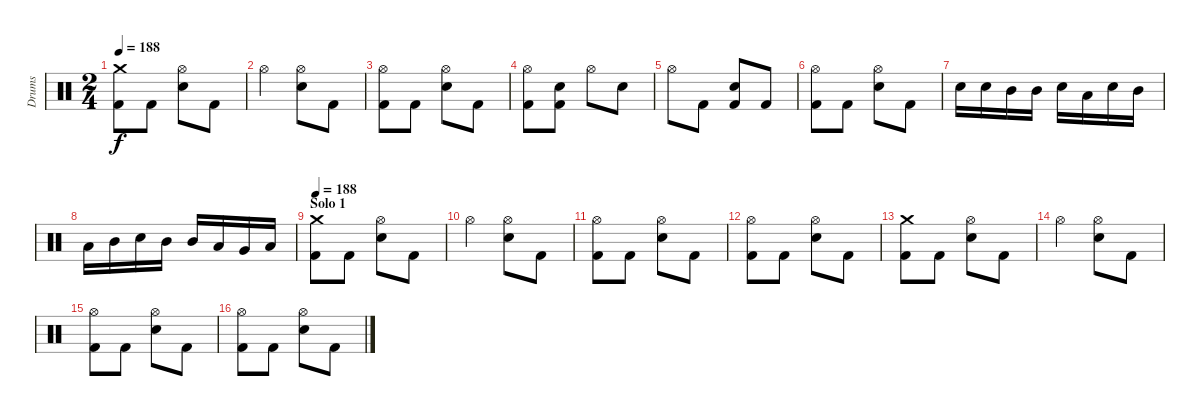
\track ("Drums" "Drums") {instrument percussion}
\staff {score}
\articulation defaults
\ts (2 4)
\tempo 188
\clef neutral
\ks c
("Crash medium (hit)" "Kick (hit) 2").8{dy f} "Kick (hit) 2".8 ("Electric Snare (hit)" "Hi-Hat (open)").8 "Kick (hit) 2".8 |
"Hi-Hat (open)".4 ("Electric Snare (hit)" "Hi-Hat (open)").8 "Kick (hit) 2".8 |
("Hi-Hat (open)" "Kick (hit) 2").8 "Kick (hit) 2".8 ("Electric Snare (hit)" "Hi-Hat (open)").8 "Kick (hit) 2".8 |
("Hi-Hat (open)" "Kick (hit) 2").8 ("Electric Snare (hit)" "Kick (hit) 2").8 "Hi-Hat (open)".8 "Electric Snare (hit)".8 |
"Hi-Hat (open)".8 "Kick (hit) 2".8 ("Electric Snare (hit)" "Kick (hit) 2").8 "Kick (hit) 2".8 |
("Hi-Hat (open)" "Kick (hit) 2").8 "Kick (hit) 2".8 ("Electric Snare (hit)" "Hi-Hat (open)").8 "Kick (hit) 2".8 |
"Electric Snare (hit)".16 "Electric Snare (hit)".16 "Mid Tom (hit)".16 "Mid Tom (hit)".16 "Electric Snare (hit)".16 "Low Tom (hit)".16 "Electric Snare (hit)".16 "Mid Tom (hit)".16 |
"Low Tom (hit)".16 "Mid Tom (hit)".16 "Electric Snare (hit)".16 "Mid Tom (hit)".16 "Mid Tom (hit)".16 "Low Tom (hit)".16 "Very Low Tom (hit)".16 "Low Floor Tom (hit)".16 |
\section ("" "Solo 1")
\tempo 188
("Crash medium (hit)" "Kick (hit) 2").8 "Kick (hit) 2".8 ("Electric Snare (hit)" "Hi-Hat (open)").8 "Kick (hit) 2".8 |
"Hi-Hat (open)".4 ("Electric Snare (hit)" "Hi-Hat (open)").8 "Kick (hit) 2".8 |
("Hi-Hat (open)" "Kick (hit) 2").8 "Kick (hit) 2".8 ("Electric Snare (hit)" "Hi-Hat (open)").8 "Kick (hit) 2".8 |
("Hi-Hat (open)" "Kick (hit) 2").8 "Kick (hit) 2".8 ("Electric Snare (hit)" "Hi-Hat (open)").8 "Kick (hit) 2".8 |
("Crash medium (hit)" "Kick (hit) 2").8 "Kick (hit) 2".8 ("Electric Snare (hit)" "Hi-Hat (open)").8 "Kick (hit) 2".8 |
"Hi-Hat (open)".4 ("Electric Snare (hit)" "Hi-Hat (open)").8 "Kick (hit) 2".8 |
("Hi-Hat (open)" "Kick (hit) 2").8 "Kick (hit) 2".8 ("Electric Snare (hit)" "Hi-Hat (open)").8 "Kick (hit) 2".8 |
("Hi-Hat (open)" "Kick (hit) 2").8 "Kick (hit) 2".8 ("Electric Snare (hit)" "Hi-Hat (open)").8 "Kick (hit) 2".8
